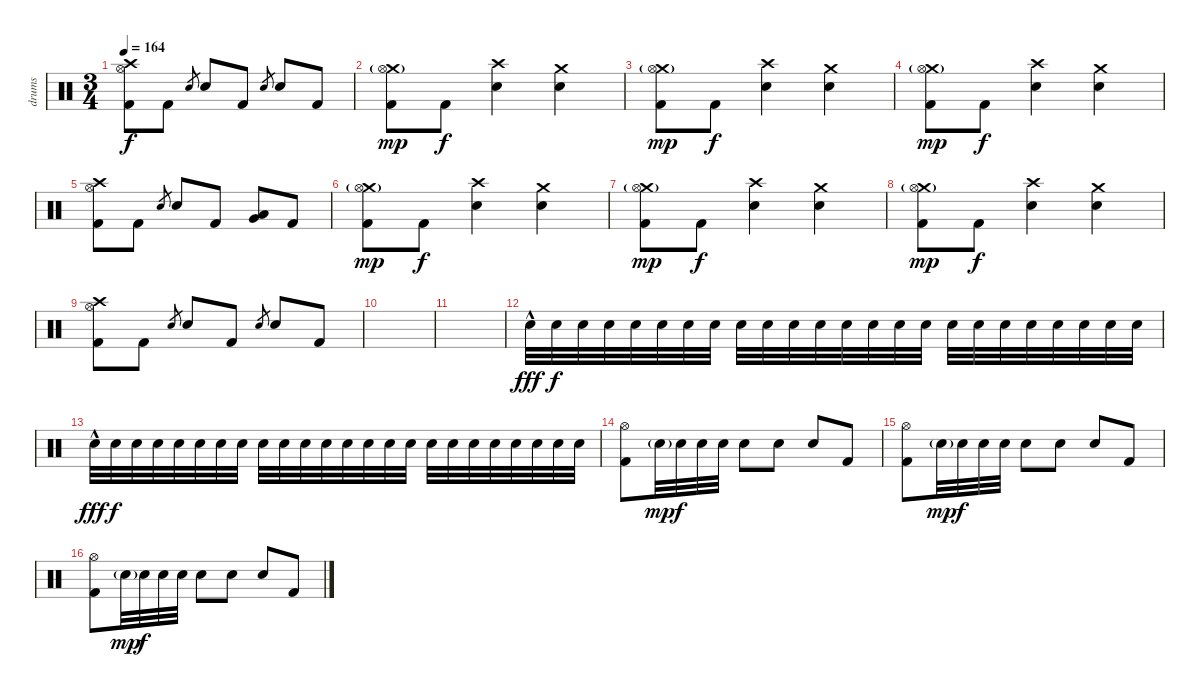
\track ("drums" "drums") {instrument percussion}
\staff {score}
\articulation defaults
\ts (3 4)
\tempo 164
\clef neutral
\ks c
("Crash high (hit)" "Hi-Hat (open)" "Kick (hit) 2").8{dy f} "Kick (hit) 2".8 "Snare (hit) 2".8{gr} "Snare (hit) 2".8 "Kick (hit) 2".8 "Snare (hit) 2".8{gr} "Snare (hit) 2".8 "Kick (hit) 2".8 |
("Crash medium (hit)"{g} "Hi-Hat (open)" "Kick (hit) 2").8{dy mp} "Kick (hit) 2".8{dy f} ("Crash high (hit)" "Snare (hit) 2").4 ("Crash medium (hit)" "Snare (hit) 2").4 |
("Crash medium (hit)"{g} "Hi-Hat (open)" "Kick (hit) 2").8{dy mp} "Kick (hit) 2".8{dy f} ("Crash high (hit)" "Snare (hit) 2").4 ("Crash medium (hit)" "Snare (hit) 2").4 |
("Crash medium (hit)"{g} "Hi-Hat (open)" "Kick (hit) 2").8{dy mp} "Kick (hit) 2".8{dy f} ("Crash high (hit)" "Snare (hit) 2").4 ("Crash medium (hit)" "Snare (hit) 2").4 |
("Crash high (hit)" "Hi-Hat (open)" "Kick (hit) 2").8 "Kick (hit) 2".8 "Snare (hit) 2".8{gr} "Snare (hit) 2".8 "Kick (hit) 2".8 ("Very Low Tom (hit)" "Low Floor Tom (hit)").8 "Kick (hit) 2".8 |
("Crash medium (hit)"{g} "Hi-Hat (open)" "Kick (hit) 2").8{dy mp} "Kick (hit) 2".8{dy f} ("Crash high (hit)" "Snare (hit) 2").4 ("Crash medium (hit)" "Snare (hit) 2").4 |
("Crash medium (hit)"{g} "Hi-Hat (open)" "Kick (hit) 2").8{dy mp} "Kick (hit) 2".8{dy f} ("Crash high (hit)" "Snare (hit) 2").4 ("Crash medium (hit)" "Snare (hit) 2").4 |
("Crash medium (hit)"{g} "Hi-Hat (open)" "Kick (hit) 2").8{dy mp} "Kick (hit) 2".8{dy f} ("Crash high (hit)" "Snare (hit) 2").4 ("Crash medium (hit)" "Snare (hit) 2").4 |
("Crash high (hit)" "Hi-Hat (open)" "Kick (hit) 2").8 "Kick (hit) 2".8 "Snare (hit) 2".8{gr} "Snare (hit) 2".8 "Kick (hit) 2".8 "Snare (hit) 2".8{gr} "Snare (hit) 2".8 "Kick (hit) 2".8 |
|
|
"Snare (hit) 2"{hac}.32{dy fff} "Snare (hit) 2".32{dy f} "Snare (hit) 2".32 "Snare (hit) 2".32 "Snare (hit) 2".32 "Snare (hit) 2".32 "Snare (hit) 2".32 "Snare (hit) 2".32 "Snare (hit) 2".32 "Snare (hit) 2".32 "Snare (hit) 2".32 "Snare (hit) 2".32 "Snare (hit) 2".32 "Snare (hit) 2".32 "Snare (hit) 2".32 "Snare (hit) 2".32 "Snare (hit) 2".32 "Snare (hit) 2".32 "Snare (hit) 2".32 "Snare (hit) 2".32 "Snare (hit) 2".32 "Snare (hit) 2".32 "Snare (hit) 2".32 "Snare (hit) 2".32 |
"Snare (hit) 2"{hac}.32{dy fff} "Snare (hit) 2".32{dy f} "Snare (hit) 2".32 "Snare (hit) 2".32 "Snare (hit) 2".32 "Snare (hit) 2".32 "Snare (hit) 2".32 "Snare (hit) 2".32 "Snare (hit) 2".32 "Snare (hit) 2".32 "Snare (hit) 2".32 "Snare (hit) 2".32 "Snare (hit) 2".32 "Snare (hit) 2".32 "Snare (hit) 2".32 "Snare (hit) 2".32 "Snare (hit) 2".32 "Snare (hit) 2".32 "Snare (hit) 2".32 "Snare (hit) 2".32 "Snare (hit) 2".32 "Snare (hit) 2".32 "Snare (hit) 2".32 "Snare (hit) 2".32 |
("Hi-Hat (open)" "Kick (hit) 2").8 "Snare (hit) 2"{g}.32{dy mp} "Snare (hit) 2".32{dy f} "Snare (hit) 2".32 "Snare (hit) 2".32 "Snare (hit) 2".8 "Snare (hit) 2".8 "Snare (hit) 2".8 "Kick (hit) 2".8 |
("Hi-Hat (open)" "Kick (hit) 2").8 "Snare (hit) 2"{g}.32{dy mp} "Snare (hit) 2".32{dy f} "Snare (hit) 2".32 "Snare (hit) 2".32 "Snare (hit) 2".8 "Snare (hit) 2".8 "Snare (hit) 2".8 "Kick (hit) 2".8 |
("Hi-Hat (open)" "Kick (hit) 2").8 "Snare (hit) 2"{g}.32{dy mp} "Snare (hit) 2".32{dy f} "Snare (hit) 2".32 "Snare (hit) 2".32 "Snare (hit) 2".8 "Snare (hit) 2".8 "Snare (hit) 2".8 "Kick (hit) 2".8
